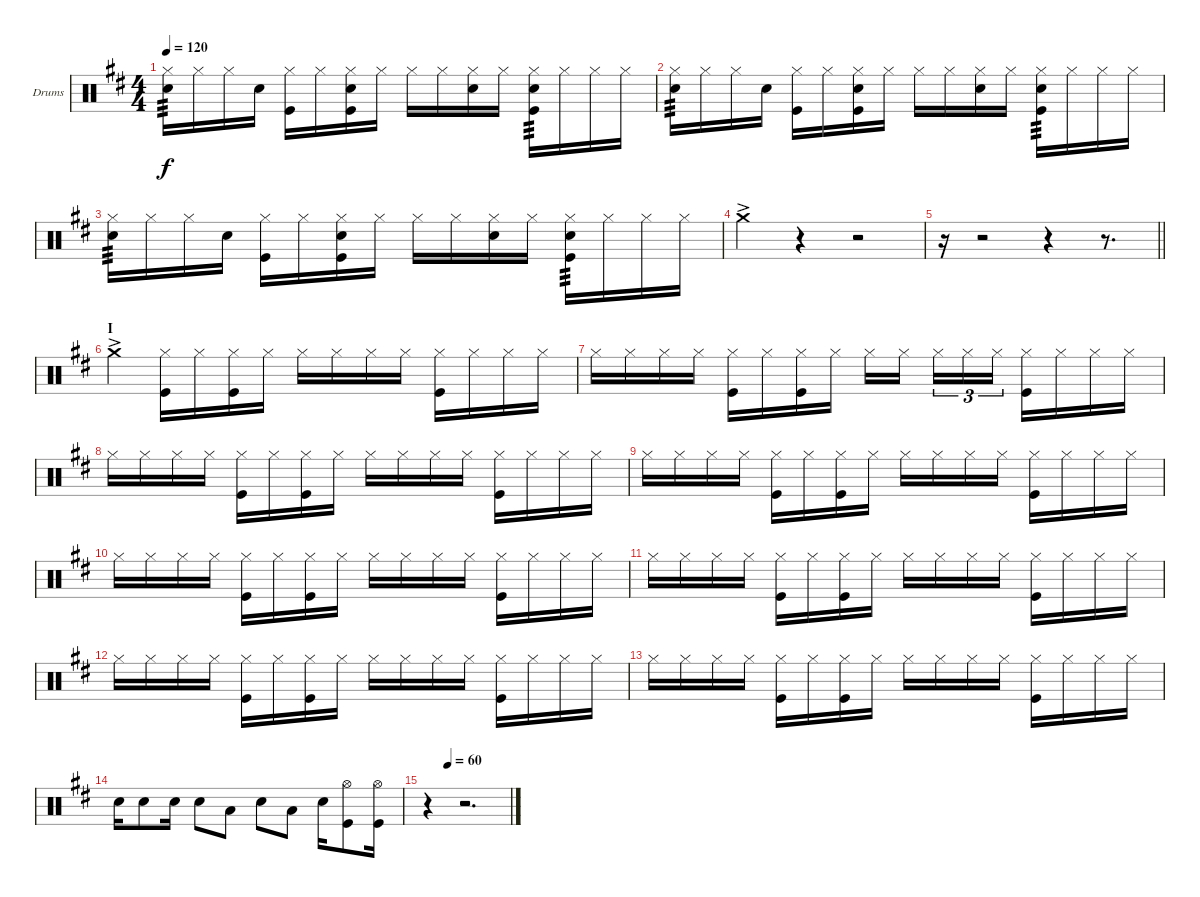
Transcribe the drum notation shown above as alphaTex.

\bracketExtendMode groupsimilarinstruments
\firstSystemTrackNameOrientation horizontal
\otherSystemsTrackNameOrientation horizontal
\track ("Drumkit" "Drums") {instrument percussion}
\staff {score}
\articulation defaults
\ts (4 4)
\tempo 120
\clef neutral
\ks d
("Hi-Hat (closed)" "Snare (hit) 2").16{tp 3 dy f} "Hi-Hat (closed)".16 "Hi-Hat (closed)".16 "Snare (hit) 2".16 ("Hi-Hat (closed)" "Kick (hit)").16 "Hi-Hat (closed)".16 ("Hi-Hat (closed)" "Snare (hit) 2" "Kick (hit)").16 "Hi-Hat (closed)".16 "Hi-Hat (closed)".16 "Hi-Hat (closed)".16 ("Hi-Hat (closed)" "Snare (hit) 2").16 "Hi-Hat (closed)".16 ("Hi-Hat (closed)" "Snare (hit) 2" "Kick (hit)").16{tp 3} "Hi-Hat (closed)".16 "Hi-Hat (closed)".16 "Hi-Hat (closed)".16 |
("Hi-Hat (closed)" "Snare (hit) 2").16{tp 3} "Hi-Hat (closed)".16 "Hi-Hat (closed)".16 "Snare (hit) 2".16 ("Hi-Hat (closed)" "Kick (hit)").16 "Hi-Hat (closed)".16 ("Hi-Hat (closed)" "Snare (hit) 2" "Kick (hit)").16 "Hi-Hat (closed)".16 "Hi-Hat (closed)".16 "Hi-Hat (closed)".16 ("Hi-Hat (closed)" "Snare (hit) 2").16 "Hi-Hat (closed)".16 ("Hi-Hat (closed)" "Snare (hit) 2" "Kick (hit)").16{tp 3} "Hi-Hat (closed)".16 "Hi-Hat (closed)".16 "Hi-Hat (closed)".16 |
("Hi-Hat (closed)" "Snare (hit) 2").16{tp 3} "Hi-Hat (closed)".16 "Hi-Hat (closed)".16 "Snare (hit) 2".16 ("Hi-Hat (closed)" "Kick (hit)").16 "Hi-Hat (closed)".16 ("Hi-Hat (closed)" "Snare (hit) 2" "Kick (hit)").16 "Hi-Hat (closed)".16 "Hi-Hat (closed)".16 "Hi-Hat (closed)".16 ("Hi-Hat (closed)" "Snare (hit) 2").16 "Hi-Hat (closed)".16 ("Hi-Hat (closed)" "Snare (hit) 2" "Kick (hit)").16{tp 3} "Hi-Hat (closed)".16 "Hi-Hat (closed)".16 "Hi-Hat (closed)".16 |
"Crash medium (hit)"{ac}.4 r.4 r.2 |
\barLineRight lightlight
r.16 r.2 r.4 r.8{d} |
\section ("" "I")
"Crash medium (hit)"{ac}.4 ("Hi-Hat (closed)" "Kick (hit)").16 "Hi-Hat (closed)".16 ("Hi-Hat (closed)" "Kick (hit)").16 "Hi-Hat (closed)".16 "Hi-Hat (closed)".16 "Hi-Hat (closed)".16 "Hi-Hat (closed)".16 "Hi-Hat (closed)".16 ("Hi-Hat (closed)" "Kick (hit)").16 "Hi-Hat (closed)".16 "Hi-Hat (closed)".16 "Hi-Hat (closed)".16 |
"Hi-Hat (closed)".16 "Hi-Hat (closed)".16 "Hi-Hat (closed)".16 "Hi-Hat (closed)".16 ("Hi-Hat (closed)" "Kick (hit)").16 "Hi-Hat (closed)".16 ("Hi-Hat (closed)" "Kick (hit)").16 "Hi-Hat (closed)".16 "Hi-Hat (closed)".16 "Hi-Hat (closed)".16 "Hi-Hat (closed)".16{tu (3 2)} "Hi-Hat (closed)".16{tu (3 2)} "Hi-Hat (closed)".16{tu (3 2)} ("Hi-Hat (closed)" "Kick (hit)").16 "Hi-Hat (closed)".16 "Hi-Hat (closed)".16 "Hi-Hat (closed)".16 |
"Hi-Hat (closed)".16 "Hi-Hat (closed)".16 "Hi-Hat (closed)".16 "Hi-Hat (closed)".16 ("Hi-Hat (closed)" "Kick (hit)").16 "Hi-Hat (closed)".16 ("Hi-Hat (closed)" "Kick (hit)").16 "Hi-Hat (closed)".16 "Hi-Hat (closed)".16 "Hi-Hat (closed)".16 "Hi-Hat (closed)".16 "Hi-Hat (closed)".16 ("Hi-Hat (closed)" "Kick (hit)").16 "Hi-Hat (closed)".16 "Hi-Hat (closed)".16 "Hi-Hat (closed)".16 |
"Hi-Hat (closed)".16 "Hi-Hat (closed)".16 "Hi-Hat (closed)".16 "Hi-Hat (closed)".16 ("Hi-Hat (closed)" "Kick (hit)").16 "Hi-Hat (closed)".16 ("Hi-Hat (closed)" "Kick (hit)").16 "Hi-Hat (closed)".16 "Hi-Hat (closed)".16 "Hi-Hat (closed)".16 "Hi-Hat (closed)".16 "Hi-Hat (closed)".16 ("Hi-Hat (closed)" "Kick (hit)").16 "Hi-Hat (closed)".16 "Hi-Hat (closed)".16 "Hi-Hat (closed)".16 |
"Hi-Hat (closed)".16 "Hi-Hat (closed)".16 "Hi-Hat (closed)".16 "Hi-Hat (closed)".16 ("Hi-Hat (closed)" "Kick (hit)").16 "Hi-Hat (closed)".16 ("Hi-Hat (closed)" "Kick (hit)").16 "Hi-Hat (closed)".16 "Hi-Hat (closed)".16 "Hi-Hat (closed)".16 "Hi-Hat (closed)".16 "Hi-Hat (closed)".16 ("Hi-Hat (closed)" "Kick (hit)").16 "Hi-Hat (closed)".16 "Hi-Hat (closed)".16 "Hi-Hat (closed)".16 |
"Hi-Hat (closed)".16 "Hi-Hat (closed)".16 "Hi-Hat (closed)".16 "Hi-Hat (closed)".16 ("Hi-Hat (closed)" "Kick (hit)").16 "Hi-Hat (closed)".16 ("Hi-Hat (closed)" "Kick (hit)").16 "Hi-Hat (closed)".16 "Hi-Hat (closed)".16 "Hi-Hat (closed)".16 "Hi-Hat (closed)".16 "Hi-Hat (closed)".16 ("Hi-Hat (closed)" "Kick (hit)").16 "Hi-Hat (closed)".16 "Hi-Hat (closed)".16 "Hi-Hat (closed)".16 |
"Hi-Hat (closed)".16 "Hi-Hat (closed)".16 "Hi-Hat (closed)".16 "Hi-Hat (closed)".16 ("Hi-Hat (closed)" "Kick (hit)").16 "Hi-Hat (closed)".16 ("Hi-Hat (closed)" "Kick (hit)").16 "Hi-Hat (closed)".16 "Hi-Hat (closed)".16 "Hi-Hat (closed)".16 "Hi-Hat (closed)".16 "Hi-Hat (closed)".16 ("Hi-Hat (closed)" "Kick (hit)").16 "Hi-Hat (closed)".16 "Hi-Hat (closed)".16 "Hi-Hat (closed)".16 |
"Hi-Hat (closed)".16 "Hi-Hat (closed)".16 "Hi-Hat (closed)".16 "Hi-Hat (closed)".16 ("Hi-Hat (closed)" "Kick (hit)").16 "Hi-Hat (closed)".16 ("Hi-Hat (closed)" "Kick (hit)").16 "Hi-Hat (closed)".16 "Hi-Hat (closed)".16 "Hi-Hat (closed)".16 "Hi-Hat (closed)".16 "Hi-Hat (closed)".16 ("Hi-Hat (closed)" "Kick (hit)").16 "Hi-Hat (closed)".16 "Hi-Hat (closed)".16 "Hi-Hat (closed)".16 |
"Snare (hit) 2".16 "Snare (hit) 2".8 "Snare (hit) 2".16 "Snare (hit) 2".8 "Low Tom (hit)".8 "Snare (hit) 2".8 "Low Tom (hit)".8 "Snare (hit) 2".16 ("Hi-Hat (open)" "Kick (hit)").8 ("Hi-Hat (open)" "Kick (hit)").16 |
\tempo (60 0.25)
r.4 r.2{d}
